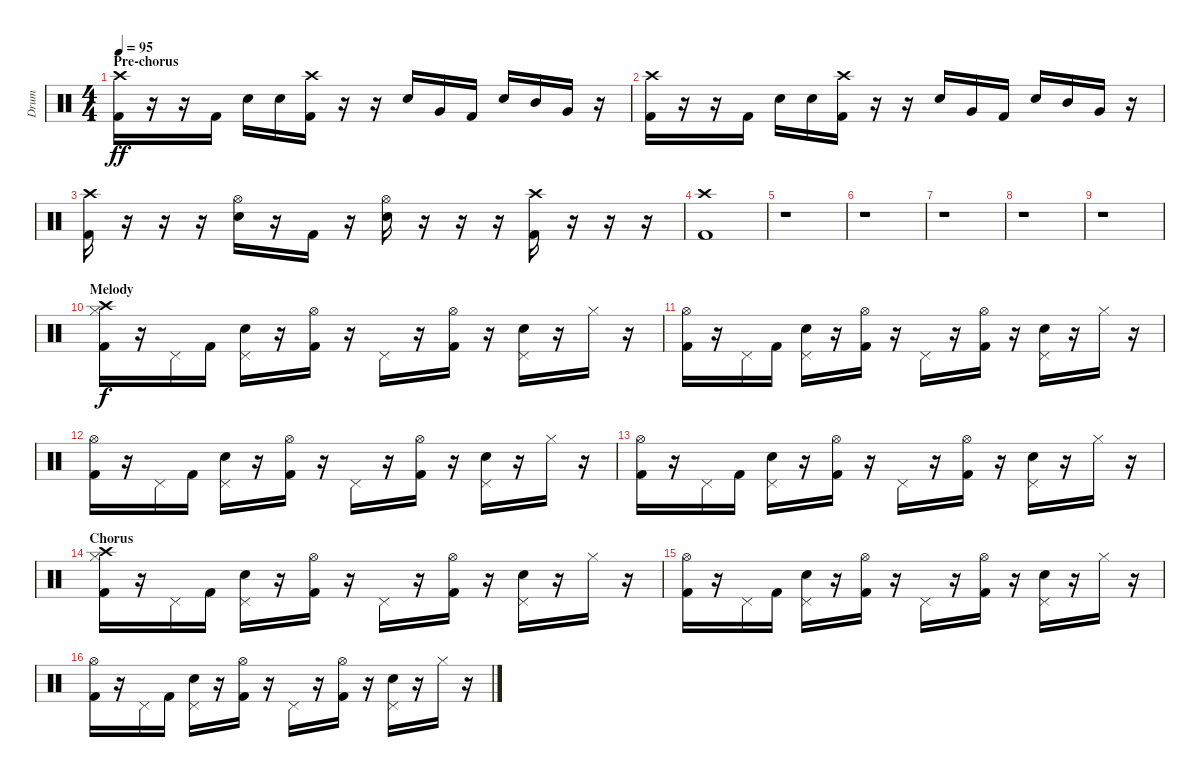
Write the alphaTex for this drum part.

\track ("Drum" "Drum") {instrument percussion}
\staff {score}
\articulation defaults
\ts (4 4)
\section ("" "Pre-chorus")
\tempo 95
\clef neutral
\ks c
("Crash high (hit)" "Kick (hit) 2").16{dy ff} r.16 r.16 "Kick (hit) 2".16 "Electric Snare (hit)".16 "Electric Snare (hit)".16 ("Crash high (hit)" "Kick (hit) 2").16 r.16 r.16 "Electric Snare (hit)".16 "Very Low Tom (hit)".16 "Kick (hit) 2".16 "Electric Snare (hit)".16 "Mid Tom (hit)".16 "Very Low Tom (hit)".16 r.16 |
("Crash high (hit)" "Kick (hit) 2").16 r.16 r.16 "Kick (hit) 2".16 "Electric Snare (hit)".16 "Electric Snare (hit)".16 ("Crash high (hit)" "Kick (hit) 2").16 r.16 r.16 "Electric Snare (hit)".16 "Very Low Tom (hit)".16 "Kick (hit) 2".16 "Electric Snare (hit)".16 "Mid Tom (hit)".16 "Very Low Tom (hit)".16 r.16 |
("Crash high (hit)" "Kick (hit) 2").16 r.16 r.16 r.16 ("Hi-Hat (open)" "Electric Snare (hit)").16 r.16 "Kick (hit) 2".16 r.16 ("Hi-Hat (open)" "Electric Snare (hit)").16 r.16 r.16 r.16 ("Crash high (hit)" "Kick (hit) 2").16 r.16 r.16 r.16 |
("Crash high (hit)" "Kick (hit) 2").1 |
r.1 |
r.1 |
r.1 |
r.1 |
r.1 |
\section ("" "Melody")
("Crash high (hit)" "Hi-Hat (closed)" "Kick (hit) 2").16{dy f} r.16 "Pedal Hi-Hat (hit)".16 "Kick (hit) 2".16 ("Pedal Hi-Hat (hit)" "Electric Snare (hit)").16 r.16 ("Hi-Hat (open)" "Kick (hit) 2").16 r.16 "Pedal Hi-Hat (hit)".16 r.16 ("Hi-Hat (open)" "Kick (hit) 2").16 r.16 ("Pedal Hi-Hat (hit)" "Electric Snare (hit)").16 r.16 "Hi-Hat (closed)".16 r.16 |
("Hi-Hat (open)" "Kick (hit) 2").16 r.16 "Pedal Hi-Hat (hit)".16 "Kick (hit) 2".16 ("Pedal Hi-Hat (hit)" "Electric Snare (hit)").16 r.16 ("Hi-Hat (open)" "Kick (hit) 2").16 r.16 "Pedal Hi-Hat (hit)".16 r.16 ("Hi-Hat (open)" "Kick (hit) 2").16 r.16 ("Pedal Hi-Hat (hit)" "Electric Snare (hit)").16 r.16 "Hi-Hat (closed)".16 r.16 |
("Hi-Hat (open)" "Kick (hit) 2").16 r.16 "Pedal Hi-Hat (hit)".16 "Kick (hit) 2".16 ("Pedal Hi-Hat (hit)" "Electric Snare (hit)").16 r.16 ("Hi-Hat (open)" "Kick (hit) 2").16 r.16 "Pedal Hi-Hat (hit)".16 r.16 ("Hi-Hat (open)" "Kick (hit) 2").16 r.16 ("Pedal Hi-Hat (hit)" "Electric Snare (hit)").16 r.16 "Hi-Hat (closed)".16 r.16 |
("Hi-Hat (open)" "Kick (hit) 2").16 r.16 "Pedal Hi-Hat (hit)".16 "Kick (hit) 2".16 ("Pedal Hi-Hat (hit)" "Electric Snare (hit)").16 r.16 ("Hi-Hat (open)" "Kick (hit) 2").16 r.16 "Pedal Hi-Hat (hit)".16 r.16 ("Hi-Hat (open)" "Kick (hit) 2").16 r.16 ("Pedal Hi-Hat (hit)" "Electric Snare (hit)").16 r.16 "Hi-Hat (closed)".16 r.16 |
\section ("" "Chorus")
("Crash high (hit)" "Hi-Hat (closed)" "Kick (hit) 2").16 r.16 "Pedal Hi-Hat (hit)".16 "Kick (hit) 2".16 ("Pedal Hi-Hat (hit)" "Electric Snare (hit)").16 r.16 ("Hi-Hat (open)" "Kick (hit) 2").16 r.16 "Pedal Hi-Hat (hit)".16 r.16 ("Hi-Hat (open)" "Kick (hit) 2").16 r.16 ("Pedal Hi-Hat (hit)" "Electric Snare (hit)").16 r.16 "Hi-Hat (closed)".16 r.16 |
("Hi-Hat (open)" "Kick (hit) 2").16 r.16 "Pedal Hi-Hat (hit)".16 "Kick (hit) 2".16 ("Pedal Hi-Hat (hit)" "Electric Snare (hit)").16 r.16 ("Hi-Hat (open)" "Kick (hit) 2").16 r.16 "Pedal Hi-Hat (hit)".16 r.16 ("Hi-Hat (open)" "Kick (hit) 2").16 r.16 ("Pedal Hi-Hat (hit)" "Electric Snare (hit)").16 r.16 "Hi-Hat (closed)".16 r.16 |
("Hi-Hat (open)" "Kick (hit) 2").16 r.16 "Pedal Hi-Hat (hit)".16 "Kick (hit) 2".16 ("Pedal Hi-Hat (hit)" "Electric Snare (hit)").16 r.16 ("Hi-Hat (open)" "Kick (hit) 2").16 r.16 "Pedal Hi-Hat (hit)".16 r.16 ("Hi-Hat (open)" "Kick (hit) 2").16 r.16 ("Pedal Hi-Hat (hit)" "Electric Snare (hit)").16 r.16 "Hi-Hat (closed)".16 r.16
